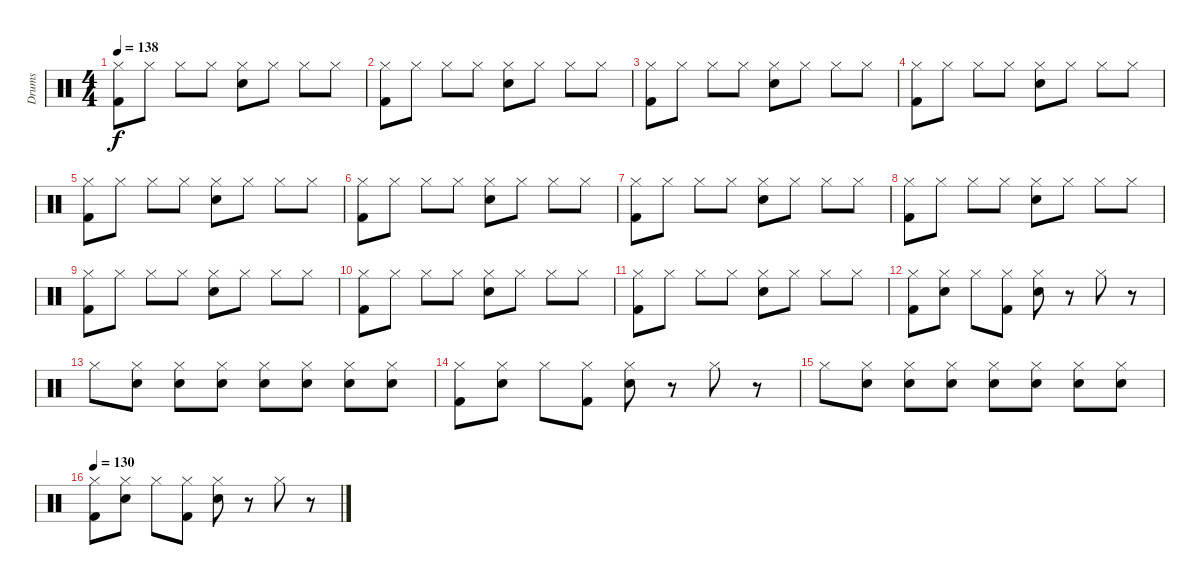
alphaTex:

\track ("Drums" "Drums") {instrument percussion}
\staff {score}
\articulation defaults
\ts (4 4)
\tempo 138
\clef neutral
\ks c
("Hi-Hat (closed)" "Kick (hit) 2").8{dy f} "Hi-Hat (closed)".8 "Hi-Hat (closed)".8 "Hi-Hat (closed)".8 ("Hi-Hat (closed)" "Snare (hit) 2").8 "Hi-Hat (closed)".8 "Hi-Hat (closed)".8 "Hi-Hat (closed)".8 |
("Hi-Hat (closed)" "Kick (hit) 2").8 "Hi-Hat (closed)".8 "Hi-Hat (closed)".8 "Hi-Hat (closed)".8 ("Hi-Hat (closed)" "Snare (hit) 2").8 "Hi-Hat (closed)".8 "Hi-Hat (closed)".8 "Hi-Hat (closed)".8 |
("Hi-Hat (closed)" "Kick (hit) 2").8 "Hi-Hat (closed)".8 "Hi-Hat (closed)".8 "Hi-Hat (closed)".8 ("Hi-Hat (closed)" "Snare (hit) 2").8 "Hi-Hat (closed)".8 "Hi-Hat (closed)".8 "Hi-Hat (closed)".8 |
("Hi-Hat (closed)" "Kick (hit) 2").8 "Hi-Hat (closed)".8 "Hi-Hat (closed)".8 "Hi-Hat (closed)".8 ("Hi-Hat (closed)" "Snare (hit) 2").8 "Hi-Hat (closed)".8 "Hi-Hat (closed)".8 "Hi-Hat (closed)".8 |
("Hi-Hat (closed)" "Kick (hit) 2").8 "Hi-Hat (closed)".8 "Hi-Hat (closed)".8 "Hi-Hat (closed)".8 ("Hi-Hat (closed)" "Snare (hit) 2").8 "Hi-Hat (closed)".8 "Hi-Hat (closed)".8 "Hi-Hat (closed)".8 |
("Hi-Hat (closed)" "Kick (hit) 2").8 "Hi-Hat (closed)".8 "Hi-Hat (closed)".8 "Hi-Hat (closed)".8 ("Hi-Hat (closed)" "Snare (hit) 2").8 "Hi-Hat (closed)".8 "Hi-Hat (closed)".8 "Hi-Hat (closed)".8 |
("Hi-Hat (closed)" "Kick (hit) 2").8 "Hi-Hat (closed)".8 "Hi-Hat (closed)".8 "Hi-Hat (closed)".8 ("Hi-Hat (closed)" "Snare (hit) 2").8 "Hi-Hat (closed)".8 "Hi-Hat (closed)".8 "Hi-Hat (closed)".8 |
("Hi-Hat (closed)" "Kick (hit) 2").8 "Hi-Hat (closed)".8 "Hi-Hat (closed)".8 "Hi-Hat (closed)".8 ("Hi-Hat (closed)" "Snare (hit) 2").8 "Hi-Hat (closed)".8 "Hi-Hat (closed)".8 "Hi-Hat (closed)".8 |
("Hi-Hat (closed)" "Kick (hit) 2").8 "Hi-Hat (closed)".8 "Hi-Hat (closed)".8 "Hi-Hat (closed)".8 ("Hi-Hat (closed)" "Snare (hit) 2").8 "Hi-Hat (closed)".8 "Hi-Hat (closed)".8 "Hi-Hat (closed)".8 |
("Hi-Hat (closed)" "Kick (hit) 2").8 "Hi-Hat (closed)".8 "Hi-Hat (closed)".8 "Hi-Hat (closed)".8 ("Hi-Hat (closed)" "Snare (hit) 2").8 "Hi-Hat (closed)".8 "Hi-Hat (closed)".8 "Hi-Hat (closed)".8 |
("Hi-Hat (closed)" "Kick (hit) 2").8 "Hi-Hat (closed)".8 "Hi-Hat (closed)".8 "Hi-Hat (closed)".8 ("Hi-Hat (closed)" "Snare (hit) 2").8 "Hi-Hat (closed)".8 "Hi-Hat (closed)".8 "Hi-Hat (closed)".8 |
("Hi-Hat (closed)" "Kick (hit) 2").8 ("Hi-Hat (closed)" "Snare (hit) 2").8 "Hi-Hat (closed)".8 ("Hi-Hat (closed)" "Kick (hit) 2").8 ("Hi-Hat (closed)" "Snare (hit) 2").8 r.8 "Hi-Hat (closed)".8 r.8 |
"Hi-Hat (closed)".8 ("Hi-Hat (closed)" "Snare (hit) 2").8 ("Hi-Hat (closed)" "Snare (hit) 2").8 ("Hi-Hat (closed)" "Snare (hit) 2").8 ("Hi-Hat (closed)" "Snare (hit) 2").8 ("Hi-Hat (closed)" "Snare (hit) 2").8 ("Hi-Hat (closed)" "Snare (hit) 2").8 ("Hi-Hat (closed)" "Snare (hit) 2").8 |
("Hi-Hat (closed)" "Kick (hit) 2").8 ("Hi-Hat (closed)" "Snare (hit) 2").8 "Hi-Hat (closed)".8 ("Hi-Hat (closed)" "Kick (hit) 2").8 ("Hi-Hat (closed)" "Snare (hit) 2").8 r.8 "Hi-Hat (closed)".8 r.8 |
"Hi-Hat (closed)".8 ("Hi-Hat (closed)" "Snare (hit) 2").8 ("Hi-Hat (closed)" "Snare (hit) 2").8 ("Hi-Hat (closed)" "Snare (hit) 2").8 ("Hi-Hat (closed)" "Snare (hit) 2").8 ("Hi-Hat (closed)" "Snare (hit) 2").8 ("Hi-Hat (closed)" "Snare (hit) 2").8 ("Hi-Hat (closed)" "Snare (hit) 2").8 |
\tempo 130
("Hi-Hat (closed)" "Kick (hit) 2").8 ("Hi-Hat (closed)" "Snare (hit) 2").8 "Hi-Hat (closed)".8 ("Hi-Hat (closed)" "Kick (hit) 2").8 ("Hi-Hat (closed)" "Snare (hit) 2").8 r.8 "Hi-Hat (closed)".8 r.8
